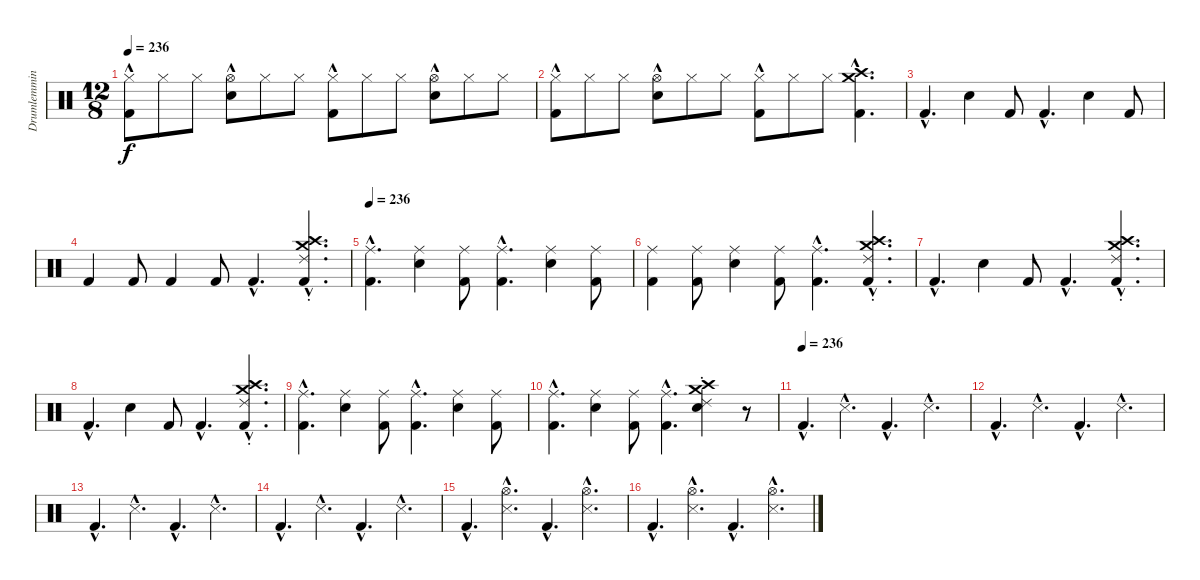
\track ("Drumlemming" "Drumlemmin") {instrument percussion}
\staff {score}
\articulation defaults
\ts (12 8)
\tempo 236
\clef neutral
\ks c
("Hi-Hat (closed)"{hac} "Kick (hit) 2").8{dy f} "Hi-Hat (closed)".8 "Hi-Hat (closed)".8 ("Hi-Hat (open)"{hac} "Snare (hit) 2").8 "Hi-Hat (closed)".8 "Hi-Hat (closed)".8 ("Hi-Hat (closed)"{hac} "Kick (hit) 2").8 "Hi-Hat (closed)".8 "Hi-Hat (closed)".8 ("Hi-Hat (open)"{hac} "Snare (hit) 2").8 "Hi-Hat (closed)".8 "Hi-Hat (closed)".8 |
("Hi-Hat (closed)"{hac} "Kick (hit) 2").8 "Hi-Hat (closed)".8 "Hi-Hat (closed)".8 ("Hi-Hat (open)"{hac} "Snare (hit) 2").8 "Hi-Hat (closed)".8 "Hi-Hat (closed)".8 ("Hi-Hat (closed)"{hac} "Kick (hit) 2").8 "Hi-Hat (closed)".8 "Hi-Hat (closed)".8 ("Crash medium (hit)"{hac} "Crash high (hit)"{hac} "Kick (hit) 2"{hac}).4{d} |
"Kick (hit) 2"{hac}.4{d} "Snare (hit) 2".4 "Kick (hit) 2".8 "Kick (hit) 2"{hac}.4{d} "Snare (hit) 2".4 "Kick (hit) 2".8 |
"Kick (hit) 2".4 "Kick (hit) 2".8 "Kick (hit) 2".4 "Kick (hit) 2".8 "Kick (hit) 2"{hac}.4{d} ("Crash medium (hit)"{hac} "Crash high (hit)"{hac} "Ride (choke) 2"{hac} "Kick (hit) 2"{hac}).4{d} |
\tempo 236
("Ride (middle)"{hac} "Kick (hit) 2"{hac}).4{d} ("Ride (middle)" "Snare (hit) 2").4 ("Ride (middle)" "Kick (hit) 2").8 ("Ride (middle)"{hac} "Kick (hit) 2"{hac}).4{d} ("Ride (middle)" "Snare (hit) 2").4 ("Ride (middle)" "Kick (hit) 2").8 |
("Ride (middle)" "Kick (hit) 2").4 ("Ride (middle)" "Kick (hit) 2").8 ("Ride (middle)" "Snare (hit) 2").4 ("Ride (middle)" "Kick (hit) 2").8 ("Ride (middle)"{hac} "Kick (hit) 2"{hac}).4{d} ("Crash high (hit)"{hac} "Crash medium (hit)"{hac} "Ride (choke) 2"{hac} "Kick (hit) 2"{hac}).4{d} |
"Kick (hit) 2"{hac}.4{d} "Snare (hit) 2".4 "Kick (hit) 2".8 "Kick (hit) 2"{hac}.4{d} ("Crash high (hit)"{hac} "Crash medium (hit)"{hac} "Ride (choke) 2"{hac} "Kick (hit) 2"{hac}).4{d} |
"Kick (hit) 2"{hac}.4{d} "Snare (hit) 2".4 "Kick (hit) 2".8 "Kick (hit) 2"{hac}.4{d} ("Crash high (hit)"{hac} "Crash medium (hit)"{hac} "Ride (choke) 2"{hac} "Kick (hit) 2"{hac}).4{d} |
("Ride (middle)"{hac} "Kick (hit) 2"{hac}).4{d} ("Ride (middle)" "Snare (hit) 2").4 ("Ride (middle)" "Kick (hit) 2").8 ("Ride (middle)"{hac} "Kick (hit) 2"{hac}).4{d} ("Ride (middle)" "Snare (hit) 2").4 ("Ride (middle)" "Kick (hit) 2").8 |
("Ride (middle)"{hac} "Kick (hit) 2"{hac}).4{d} ("Ride (middle)" "Snare (hit) 2").4 ("Ride (middle)" "Kick (hit) 2").8 ("Ride (middle)"{hac} "Kick (hit) 2"{hac}).4{d} ("Crash medium (hit)" "Crash high (hit)" "Ride (choke) 2" "Snare (hit) 2").4 r.8 |
\tempo (236)
"Kick (hit) 2"{hac}.4{d} "Snare (side stick) 3"{hac}.4{d} "Kick (hit) 2"{hac}.4{d} "Snare (side stick) 3"{hac}.4{d} |
"Kick (hit) 2"{hac}.4{d} "Snare (side stick) 3"{hac}.4{d} "Kick (hit) 2"{hac}.4{d} "Snare (side stick) 3"{hac}.4{d} |
"Kick (hit) 2"{hac}.4{d} "Snare (side stick) 3"{hac}.4{d} "Kick (hit) 2"{hac}.4{d} "Snare (side stick) 3"{hac}.4{d} |
"Kick (hit) 2"{hac}.4{d} "Snare (side stick) 3"{hac}.4{d} "Kick (hit) 2"{hac}.4{d} "Snare (side stick) 3"{hac}.4{d} |
"Kick (hit) 2"{hac}.4{d} ("Hi-Hat (open)"{hac} "Snare (side stick) 3"{hac}).4{d} "Kick (hit) 2"{hac}.4{d} ("Hi-Hat (open)"{hac} "Snare (side stick) 3"{hac}).4{d} |
"Kick (hit) 2"{hac}.4{d} ("Hi-Hat (open)"{hac} "Snare (side stick) 3"{hac}).4{d} "Kick (hit) 2"{hac}.4{d} ("Hi-Hat (open)"{hac} "Snare (side stick) 3"{hac}).4{d}
